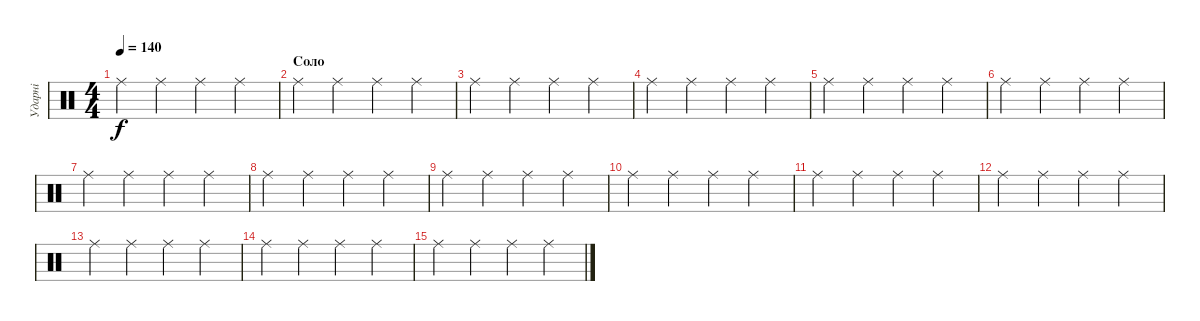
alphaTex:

\track ("Ударні" "Ударні") {instrument percussion}
\staff {score}
\articulation defaults
\ts (4 4)
\tempo 140
\clef neutral
\ks c "Ride (middle)".4{dy f} "Ride (middle)".4 "Ride (middle)".4 "Ride (middle)".4
|
\section ("" "Cоло")
"Ride (middle)".4 "Ride (middle)".4 "Ride (middle)".4 "Ride (middle)".4 |
"Ride (middle)".4 "Ride (middle)".4 "Ride (middle)".4 "Ride (middle)".4 |
"Ride (middle)".4 "Ride (middle)".4 "Ride (middle)".4 "Ride (middle)".4 |
"Ride (middle)".4 "Ride (middle)".4 "Ride (middle)".4 "Ride (middle)".4 |
"Ride (middle)".4 "Ride (middle)".4 "Ride (middle)".4 "Ride (middle)".4 |
"Ride (middle)".4 "Ride (middle)".4 "Ride (middle)".4 "Ride (middle)".4 |
"Ride (middle)".4 "Ride (middle)".4 "Ride (middle)".4 "Ride (middle)".4 |
"Ride (middle)".4 "Ride (middle)".4 "Ride (middle)".4 "Ride (middle)".4 |
"Ride (middle)".4 "Ride (middle)".4 "Ride (middle)".4 "Ride (middle)".4 |
"Ride (middle)".4 "Ride (middle)".4 "Ride (middle)".4 "Ride (middle)".4 |
"Ride (middle)".4 "Ride (middle)".4 "Ride (middle)".4 "Ride (middle)".4 |
"Ride (middle)".4 "Ride (middle)".4 "Ride (middle)".4 "Ride (middle)".4 |
"Ride (middle)".4 "Ride (middle)".4 "Ride (middle)".4 "Ride (middle)".4 |
"Ride (middle)".4 "Ride (middle)".4 "Ride (middle)".4 "Ride (middle)".4
